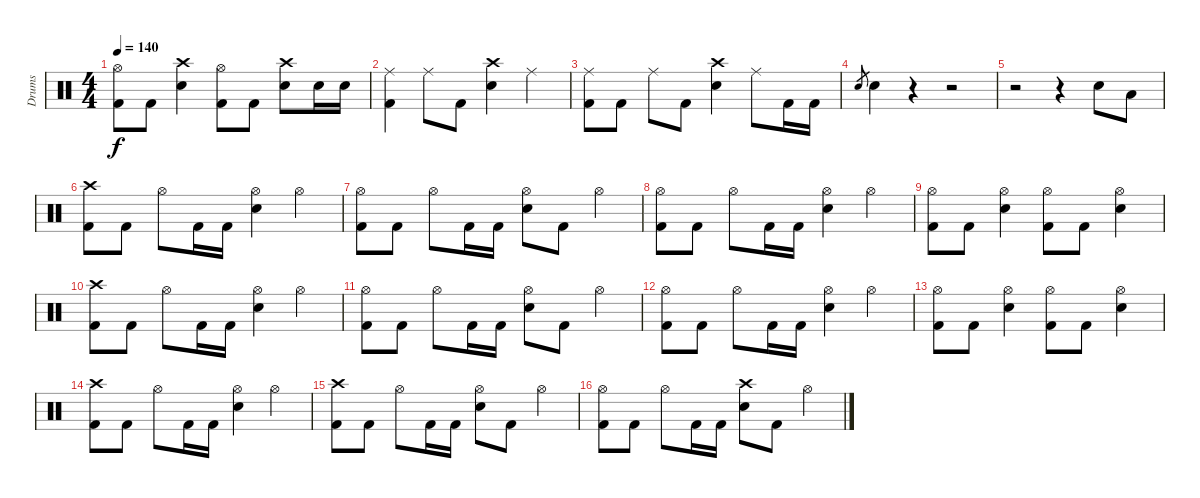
\track ("Drums" "Drums") {instrument percussion}
\staff {score}
\articulation defaults
\ts (4 4)
\tempo 140
\clef neutral
\ks c
("Hi-Hat (open)" "Kick (hit) 2").8{dy f} "Kick (hit) 2".8 ("Crash high (hit)" "Electric Snare (hit)").4 ("Hi-Hat (open)" "Kick (hit) 2").8 "Kick (hit) 2".8 ("Crash high (hit)" "Electric Snare (hit)").8 "Electric Snare (hit)".16 "Electric Snare (hit)".16 |
("Ride (middle)" "Kick (hit) 2").4 "Ride (middle)".8 "Kick (hit) 2".8 ("Crash high (hit)" "Electric Snare (hit)").4 "Ride (middle)".4 |
("Ride (middle)" "Kick (hit) 2").8 "Kick (hit) 2".8 "Ride (middle)".8 "Kick (hit) 2".8 ("Crash high (hit)" "Electric Snare (hit)").4 "Ride (middle)".8 "Kick (hit) 2".16 "Kick (hit) 2".16 |
"Electric Snare (hit)".8{gr} "Electric Snare (hit)".4 r.4 r.2 |
r.2 r.4 "Electric Snare (hit)".8 "Low Tom (hit)".8 |
("Crash high (hit)" "Kick (hit) 2").8 "Kick (hit) 2".8 "Hi-Hat (open)".8 "Kick (hit) 2".16 "Kick (hit) 2".16 ("Hi-Hat (open)" "Electric Snare (hit)").4 "Hi-Hat (open)".4 |
("Hi-Hat (open)" "Kick (hit) 2").8 "Kick (hit) 2".8 "Hi-Hat (open)".8 "Kick (hit) 2".16 "Kick (hit) 2".16 ("Hi-Hat (open)" "Electric Snare (hit)").8 "Kick (hit) 2".8 "Hi-Hat (open)".4 |
("Hi-Hat (open)" "Kick (hit) 2").8 "Kick (hit) 2".8 "Hi-Hat (open)".8 "Kick (hit) 2".16 "Kick (hit) 2".16 ("Hi-Hat (open)" "Electric Snare (hit)").4 "Hi-Hat (open)".4 |
("Hi-Hat (open)" "Kick (hit) 2").8 "Kick (hit) 2".8 ("Hi-Hat (open)" "Electric Snare (hit)").4 ("Hi-Hat (open)" "Kick (hit) 2").8 "Kick (hit) 2".8 ("Hi-Hat (open)" "Electric Snare (hit)").4 |
("Crash high (hit)" "Kick (hit) 2").8 "Kick (hit) 2".8 "Hi-Hat (open)".8 "Kick (hit) 2".16 "Kick (hit) 2".16 ("Hi-Hat (open)" "Electric Snare (hit)").4 "Hi-Hat (open)".4 |
("Hi-Hat (open)" "Kick (hit) 2").8 "Kick (hit) 2".8 "Hi-Hat (open)".8 "Kick (hit) 2".16 "Kick (hit) 2".16 ("Hi-Hat (open)" "Electric Snare (hit)").8 "Kick (hit) 2".8 "Hi-Hat (open)".4 |
("Hi-Hat (open)" "Kick (hit) 2").8 "Kick (hit) 2".8 "Hi-Hat (open)".8 "Kick (hit) 2".16 "Kick (hit) 2".16 ("Hi-Hat (open)" "Electric Snare (hit)").4 "Hi-Hat (open)".4 |
("Hi-Hat (open)" "Kick (hit) 2").8 "Kick (hit) 2".8 ("Hi-Hat (open)" "Electric Snare (hit)").4 ("Hi-Hat (open)" "Kick (hit) 2").8 "Kick (hit) 2".8 ("Hi-Hat (open)" "Electric Snare (hit)").4 |
("Crash high (hit)" "Kick (hit) 2").8 "Kick (hit) 2".8 "Hi-Hat (open)".8 "Kick (hit) 2".16 "Kick (hit) 2".16 ("Hi-Hat (open)" "Electric Snare (hit)").4 "Hi-Hat (open)".4 |
("Crash high (hit)" "Kick (hit) 2").8 "Kick (hit) 2".8 "Hi-Hat (open)".8 "Kick (hit) 2".16 "Kick (hit) 2".16 ("Hi-Hat (open)" "Electric Snare (hit)").8 "Kick (hit) 2".8 "Hi-Hat (open)".4 |
("Hi-Hat (open)" "Kick (hit) 2").8 "Kick (hit) 2".8 "Hi-Hat (open)".8 "Kick (hit) 2".16 "Kick (hit) 2".16 ("Crash high (hit)" "Electric Snare (hit)").8 "Kick (hit) 2".8 "Hi-Hat (open)".4
